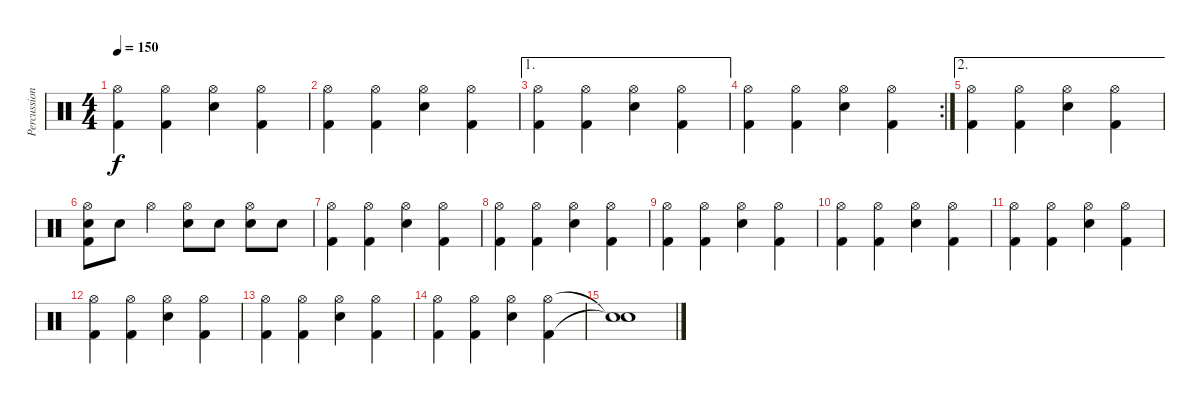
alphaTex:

\track ("Percussions" "Percussion") {instrument percussion}
\staff {score}
\articulation defaults
\ts (4 4)
\tempo 150
\clef neutral
\ks c
("Hi-Hat (open)" "Kick (hit) 2").4{dy f} ("Hi-Hat (open)" "Kick (hit) 2").4 ("Hi-Hat (open)" "Electric Snare (hit)").4 ("Hi-Hat (open)" "Kick (hit) 2").4 |
("Hi-Hat (open)" "Kick (hit) 2").4 ("Hi-Hat (open)" "Kick (hit) 2").4 ("Hi-Hat (open)" "Electric Snare (hit)").4 ("Hi-Hat (open)" "Kick (hit) 2").4 |
\ae 1
("Hi-Hat (open)" "Kick (hit) 2").4 ("Hi-Hat (open)" "Kick (hit) 2").4 ("Hi-Hat (open)" "Electric Snare (hit)").4 ("Hi-Hat (open)" "Kick (hit) 2").4 |
\rc 2
("Hi-Hat (open)" "Kick (hit) 2").4 ("Hi-Hat (open)" "Kick (hit) 2").4 ("Hi-Hat (open)" "Electric Snare (hit)").4 ("Hi-Hat (open)" "Kick (hit) 2").4 |
\ae 2
("Hi-Hat (open)" "Kick (hit) 2").4 ("Hi-Hat (open)" "Kick (hit) 2").4 ("Hi-Hat (open)" "Electric Snare (hit)").4 ("Hi-Hat (open)" "Kick (hit) 2").4 |
("Hi-Hat (open)" "Snare (hit) 2" "Kick (hit) 2").8 "Snare (hit) 2".8 "Hi-Hat (open)".4 ("Hi-Hat (open)" "Snare (hit) 2").8 "Snare (hit) 2".8 ("Hi-Hat (open)" "Snare (hit) 2").8 "Snare (hit) 2".8 |
("Hi-Hat (open)" "Kick (hit) 2").4 ("Hi-Hat (open)" "Kick (hit) 2").4 ("Hi-Hat (open)" "Electric Snare (hit)").4 ("Hi-Hat (open)" "Kick (hit) 2").4 |
("Hi-Hat (open)" "Kick (hit) 2").4 ("Hi-Hat (open)" "Kick (hit) 2").4 ("Hi-Hat (open)" "Electric Snare (hit)").4 ("Hi-Hat (open)" "Kick (hit) 2").4 |
("Hi-Hat (open)" "Kick (hit) 2").4 ("Hi-Hat (open)" "Kick (hit) 2").4 ("Hi-Hat (open)" "Electric Snare (hit)").4 ("Hi-Hat (open)" "Kick (hit) 2").4 |
("Hi-Hat (open)" "Kick (hit) 2").4 ("Hi-Hat (open)" "Kick (hit) 2").4 ("Hi-Hat (open)" "Electric Snare (hit)").4 ("Hi-Hat (open)" "Kick (hit) 2").4 |
("Hi-Hat (open)" "Kick (hit) 2").4 ("Hi-Hat (open)" "Kick (hit) 2").4 ("Hi-Hat (open)" "Electric Snare (hit)").4 ("Hi-Hat (open)" "Kick (hit) 2").4 |
("Hi-Hat (open)" "Kick (hit) 2").4 ("Hi-Hat (open)" "Kick (hit) 2").4 ("Hi-Hat (open)" "Electric Snare (hit)").4 ("Hi-Hat (open)" "Kick (hit) 2").4 |
("Hi-Hat (open)" "Kick (hit) 2").4 ("Hi-Hat (open)" "Kick (hit) 2").4 ("Hi-Hat (open)" "Electric Snare (hit)").4 ("Hi-Hat (open)" "Kick (hit) 2").4 |
("Hi-Hat (open)" "Kick (hit) 2").4 ("Hi-Hat (open)" "Kick (hit) 2").4 ("Hi-Hat (open)" "Electric Snare (hit)").4 ("Hi-Hat (open)" "Kick (hit) 2").4 |
("Snare (hit)"{t} "Snare (hit)"{t}).1
